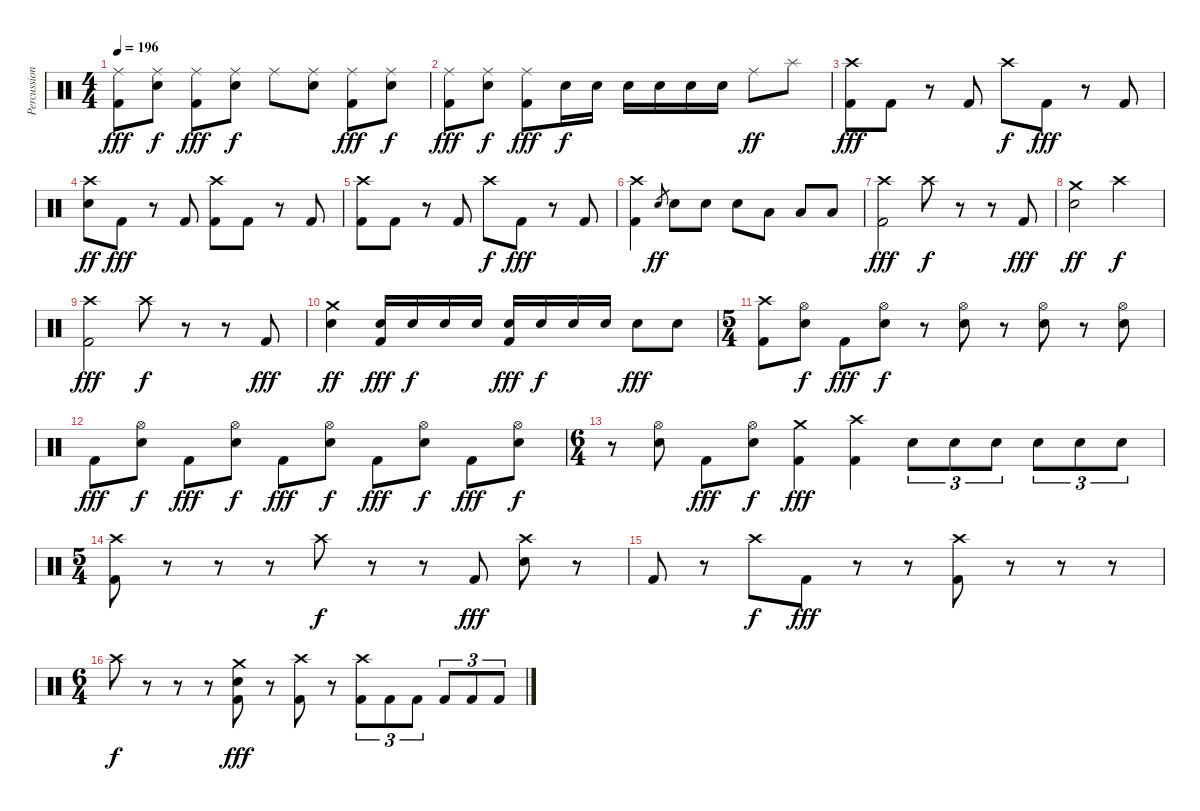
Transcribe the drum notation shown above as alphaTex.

\track ("Percussion" "Percussion") {instrument percussion}
\staff {score}
\articulation defaults
\ts (4 4)
\tempo 196
\clef neutral
\ks c
("Ride (middle)" "Kick (hit) 2").8{dy fff} ("Ride (middle)" "Electric Snare (hit)").8{dy f} ("Ride (middle)" "Kick (hit) 2").8{dy fff} ("Ride (middle)" "Electric Snare (hit)").8{dy f} "Ride (middle)".8 ("Ride (middle)" "Electric Snare (hit)").8 ("Ride (middle)" "Kick (hit) 2").8{dy fff} ("Ride (middle)" "Electric Snare (hit)").8{dy f} |
("Ride (middle)" "Kick (hit) 2").8{dy fff} ("Ride (middle)" "Electric Snare (hit)").8{dy f} ("Ride (middle)" "Kick (hit) 2").8{dy fff} "Electric Snare (hit)".16{dy f} "Electric Snare (hit)".16 "Electric Snare (hit)".16 "Electric Snare (hit)".16 "Electric Snare (hit)".16 "Electric Snare (hit)".16 "Ride (middle)".8{dy ff} "Splash (hit)".8 |
("Crash high (hit)" "Kick (hit) 2").8{dy fff} "Kick (hit) 2".8 r.8 "Kick (hit) 2".8 "Crash high (hit)".8{dy f} "Kick (hit) 2".8{dy fff} r.8 "Kick (hit) 2".8 |
("Crash high (hit)" "Electric Snare (hit)").8{dy ff} "Kick (hit) 2".8{dy fff} r.8 "Kick (hit) 2".8 ("Crash high (hit)" "Kick (hit) 2").8 "Kick (hit) 2".8 r.8 "Kick (hit) 2".8 |
("Crash high (hit)" "Kick (hit) 2").8 "Kick (hit) 2".8 r.8 "Kick (hit) 2".8 "Crash high (hit)".8{dy f} "Kick (hit) 2".8{dy fff} r.8 "Kick (hit) 2".8 |
("Crash high (hit)" "Kick (hit) 2").4 "Electric Snare (hit)".8{gr dy ff} "Electric Snare (hit)".8 "Electric Snare (hit)".8 "Electric Snare (hit)".8 "Low Tom (hit)".8 "Low Tom (hit)".8 "Low Tom (hit)".8 |
("Crash high (hit)" "Kick (hit) 2").2{dy fff} "Crash high (hit)".8{dy f} r.8 r.8 "Kick (hit) 2".8{dy fff} |
("Crash medium (hit)" "Electric Snare (hit)").2{dy ff} "Crash high (hit)".2{dy f} |
("Crash high (hit)" "Kick (hit) 2").2{dy fff} "Crash high (hit)".8{dy f} r.8 r.8 "Kick (hit) 2".8{dy fff} |
("Crash medium (hit)" "Electric Snare (hit)").4{dy ff} ("Electric Snare (hit)" "Kick (hit) 2").16{dy fff} "Electric Snare (hit)".16{dy f} "Electric Snare (hit)".16 "Electric Snare (hit)".16 ("Electric Snare (hit)" "Kick (hit) 2").16{dy fff} "Electric Snare (hit)".16{dy f} "Electric Snare (hit)".16 "Electric Snare (hit)".16 "Electric Snare (hit)".8{dy fff} "Electric Snare (hit)".8 |
\ts (5 4)
("Crash high (hit)" "Kick (hit) 2").8 ("Hi-Hat (open)" "Electric Snare (hit)").8{dy f} "Kick (hit) 2".8{dy fff} ("Hi-Hat (open)" "Electric Snare (hit)").8{dy f} r.8 ("Hi-Hat (open)" "Electric Snare (hit)").8 r.8 ("Hi-Hat (open)" "Electric Snare (hit)").8 r.8 ("Hi-Hat (open)" "Electric Snare (hit)").8 |
"Kick (hit) 2".8{dy fff} ("Hi-Hat (open)" "Electric Snare (hit)").8{dy f} "Kick (hit) 2".8{dy fff} ("Hi-Hat (open)" "Electric Snare (hit)").8{dy f} "Kick (hit) 2".8{dy fff} ("Hi-Hat (open)" "Electric Snare (hit)").8{dy f} "Kick (hit) 2".8{dy fff} ("Hi-Hat (open)" "Electric Snare (hit)").8{dy f} "Kick (hit) 2".8{dy fff} ("Hi-Hat (open)" "Electric Snare (hit)").8{dy f} |
\ts (6 4)
r.8 ("Hi-Hat (open)" "Electric Snare (hit)").8 "Kick (hit) 2".8{dy fff} ("Hi-Hat (open)" "Electric Snare (hit)").8{dy f} ("Crash medium (hit)" "Kick (hit) 2").4{dy fff} ("Crash high (hit)" "Kick (hit) 2").4 "Electric Snare (hit)".8{tu (3 2)} "Electric Snare (hit)".8{tu (3 2)} "Electric Snare (hit)".8{tu (3 2)} "Electric Snare (hit)".8{tu (3 2)} "Electric Snare (hit)".8{tu (3 2)} "Electric Snare (hit)".8{tu (3 2)} |
\ts (5 4)
("Crash high (hit)" "Kick (hit) 2").8 r.8 r.8 r.8 "Crash high (hit)".8{dy f} r.8 r.8 "Kick (hit) 2".8{dy fff} ("Crash high (hit)" "Electric Snare (hit)").8 r.8 |
"Kick (hit) 2".8 r.8 "Crash high (hit)".8{dy f} "Kick (hit) 2".8{dy fff} r.8 r.8 ("Crash high (hit)" "Kick (hit) 2").8 r.8 r.8 r.8 |
\ts (6 4)
"Crash high (hit)".8{dy f} r.8 r.8 r.8 ("Crash medium (hit)" "Electric Snare (hit)" "Kick (hit) 2").8{dy fff} r.8 ("Crash high (hit)" "Kick (hit) 2").8 r.8 ("Crash high (hit)" "Kick (hit) 2").8{tu (3 2)} "Kick (hit) 2".8{tu (3 2)} "Kick (hit) 2".8{tu (3 2)} "Kick (hit) 2".8{tu (3 2)} "Kick (hit) 2".8{tu (3 2)} "Kick (hit) 2".8{tu (3 2)}
